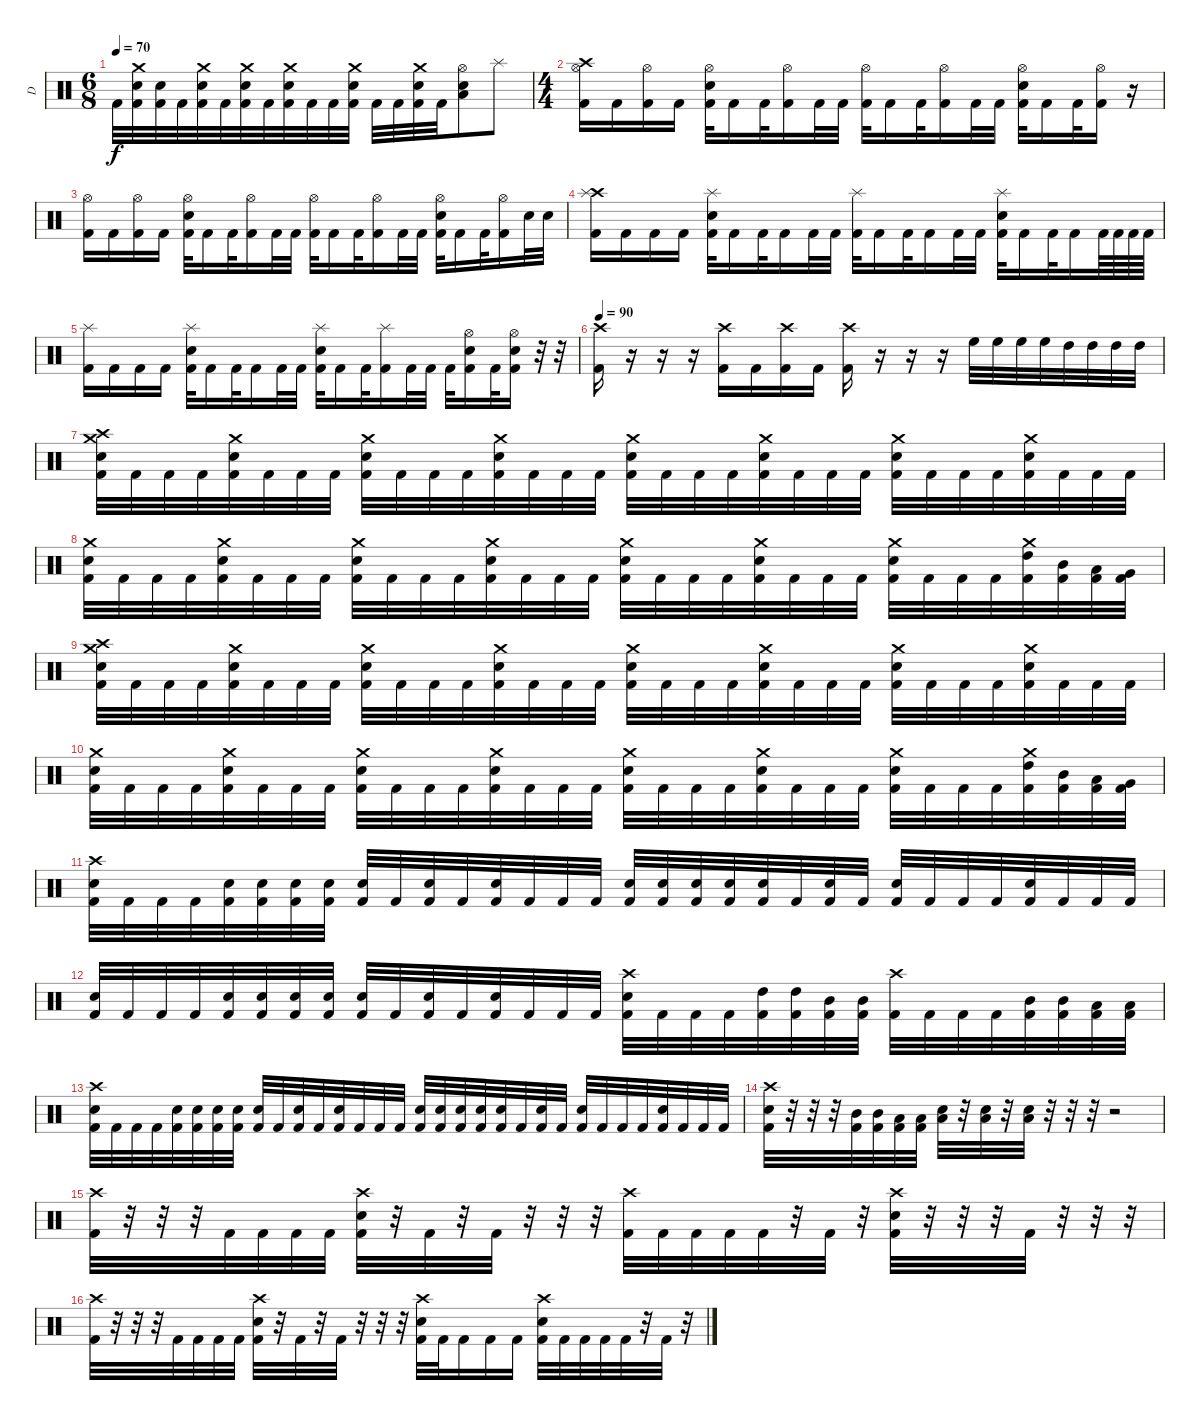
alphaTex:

\track ("D" "D") {instrument percussion}
\staff {score}
\articulation defaults
\ts (6 8)
\tempo 70
\clef neutral
\ks c "Kick (hit) 2".32{dy f}
("Electric Snare (hit)" "Kick (hit) 2" "Crash medium (hit)").32 ("Electric Snare (hit)" "Kick (hit) 2").32 "Kick (hit) 2".32 ("Electric Snare (hit)" "Kick (hit) 2" "Crash medium (hit)").32 "Kick (hit) 2".32 ("Electric Snare (hit)" "Kick (hit) 2" "Crash medium (hit)").32 "Kick (hit) 2".32 ("Electric Snare (hit)" "Kick (hit) 2" "Crash medium (hit)").32 "Kick (hit) 2".32 "Kick (hit) 2".32 ("Electric Snare (hit)" "Kick (hit) 2" "Crash medium (hit)").32 "Kick (hit) 2".32 "Kick (hit) 2".32 ("Electric Snare (hit)" "Kick (hit) 2" "Crash medium (hit)").32 "Kick (hit) 2".32 ("Electric Snare (hit)" "Low Tom (hit)" "Hi-Hat (open)").8 "Splash (hit)".8 |
\ts (4 4)
("Crash high (hit)" "Kick (hit) 2" "Hi-Hat (open)").16 "Kick (hit) 2".16 ("Kick (hit) 2" "Hi-Hat (open)").16 "Kick (hit) 2".16 ("Electric Snare (hit)" "Kick (hit) 2" "Hi-Hat (open)").32 "Kick (hit) 2".16 "Kick (hit) 2".32 ("Kick (hit) 2" "Hi-Hat (open)").16 "Kick (hit) 2".32 "Kick (hit) 2".32 ("Kick (hit) 2" "Hi-Hat (open)").32 "Kick (hit) 2".16 "Kick (hit) 2".32 ("Kick (hit) 2" "Hi-Hat (open)").16 "Kick (hit) 2".32 "Kick (hit) 2".32 ("Electric Snare (hit)" "Kick (hit) 2" "Hi-Hat (open)").32 "Kick (hit) 2".16 "Kick (hit) 2".32 ("Kick (hit) 2" "Hi-Hat (open)").16 r.16 |
("Kick (hit) 2" "Hi-Hat (open)").16 "Kick (hit) 2".16 ("Kick (hit) 2" "Hi-Hat (open)").16 "Kick (hit) 2".16 ("Electric Snare (hit)" "Kick (hit) 2" "Hi-Hat (open)").32 "Kick (hit) 2".16 "Kick (hit) 2".32 ("Kick (hit) 2" "Hi-Hat (open)").16 "Kick (hit) 2".32 "Kick (hit) 2".32 ("Kick (hit) 2" "Hi-Hat (open)").32 "Kick (hit) 2".16 "Kick (hit) 2".32 ("Kick (hit) 2" "Hi-Hat (open)").16 "Kick (hit) 2".32 "Kick (hit) 2".32 ("Electric Snare (hit)" "Kick (hit) 2" "Hi-Hat (open)").32 "Kick (hit) 2".16 "Kick (hit) 2".32 ("Kick (hit) 2" "Hi-Hat (open)").16 "Electric Snare (hit)".32 "Electric Snare (hit)".32 |
("Crash high (hit)" "Kick (hit) 2" "Splash (hit)").16 "Kick (hit) 2".16 "Kick (hit) 2".16 "Kick (hit) 2".16 ("Electric Snare (hit)" "Kick (hit) 2" "Splash (hit)").32 "Kick (hit) 2".16 "Kick (hit) 2".32 "Kick (hit) 2".16 "Kick (hit) 2".32 "Kick (hit) 2".32 ("Kick (hit) 2" "Splash (hit)").32 "Kick (hit) 2".16 "Kick (hit) 2".32 "Kick (hit) 2".16 "Kick (hit) 2".32 "Kick (hit) 2".32 ("Electric Snare (hit)" "Kick (hit) 2" "Splash (hit)").32 "Kick (hit) 2".16 "Kick (hit) 2".32 "Kick (hit) 2".16 "Kick (hit) 2".64 "Kick (hit) 2".64 "Kick (hit) 2".64 "Kick (hit) 2".64 |
("Kick (hit) 2" "Splash (hit)").16 "Kick (hit) 2".16 "Kick (hit) 2".16 "Kick (hit) 2".16 ("Electric Snare (hit)" "Kick (hit) 2" "Splash (hit)").32 "Kick (hit) 2".16 "Kick (hit) 2".32 "Kick (hit) 2".16 "Kick (hit) 2".32 "Kick (hit) 2".32 ("Electric Snare (hit)" "Kick (hit) 2" "Splash (hit)").32 "Kick (hit) 2".16 "Kick (hit) 2".32 ("Kick (hit) 2" "Splash (hit)").16 "Kick (hit) 2".32 "Kick (hit) 2".32 "Kick (hit) 2".32 ("Electric Snare (hit)" "Kick (hit) 2" "Hi-Hat (open)").16 "Kick (hit) 2".32 ("Electric Snare (hit)" "Kick (hit) 2" "Hi-Hat (open)").16 r.32 r.32 |
\tempo 90
("Crash high (hit)" "Kick (hit) 2").16 r.16 r.16 r.16 ("Crash high (hit)" "Kick (hit) 2").16 "Kick (hit) 2".16 ("Crash high (hit)" "Kick (hit) 2").16 "Kick (hit) 2".16 ("Crash high (hit)" "Kick (hit) 2").16 r.16 r.16 r.16 "High Floor Tom (hit)".32 "High Floor Tom (hit)".32 "High Floor Tom (hit)".32 "High Floor Tom (hit)".32 "High Tom (hit)".32 "High Tom (hit)".32 "High Tom (hit)".32 "High Tom (hit)".32 |
("Crash high (hit)" "Electric Snare (hit)" "Kick (hit) 2" "Crash medium (hit)").32 "Kick (hit) 2".32 "Kick (hit) 2".32 "Kick (hit) 2".32 ("Electric Snare (hit)" "Kick (hit) 2" "Crash medium (hit)").32 "Kick (hit) 2".32 "Kick (hit) 2".32 "Kick (hit) 2".32 ("Electric Snare (hit)" "Kick (hit) 2" "Crash medium (hit)").32 "Kick (hit) 2".32 "Kick (hit) 2".32 "Kick (hit) 2".32 ("Electric Snare (hit)" "Kick (hit) 2" "Crash medium (hit)").32 "Kick (hit) 2".32 "Kick (hit) 2".32 "Kick (hit) 2".32 ("Electric Snare (hit)" "Kick (hit) 2" "Crash medium (hit)").32 "Kick (hit) 2".32 "Kick (hit) 2".32 "Kick (hit) 2".32 ("Electric Snare (hit)" "Kick (hit) 2" "Crash medium (hit)").32 "Kick (hit) 2".32 "Kick (hit) 2".32 "Kick (hit) 2".32 ("Electric Snare (hit)" "Kick (hit) 2" "Crash medium (hit)").32 "Kick (hit) 2".32 "Kick (hit) 2".32 "Kick (hit) 2".32 ("Electric Snare (hit)" "Kick (hit) 2" "Crash medium (hit)").32 "Kick (hit) 2".32 "Kick (hit) 2".32 "Kick (hit) 2".32 |
("Electric Snare (hit)" "Kick (hit) 2" "Crash medium (hit)").32 "Kick (hit) 2".32 "Kick (hit) 2".32 "Kick (hit) 2".32 ("Electric Snare (hit)" "Kick (hit) 2" "Crash medium (hit)").32 "Kick (hit) 2".32 "Kick (hit) 2".32 "Kick (hit) 2".32 ("Electric Snare (hit)" "Kick (hit) 2" "Crash medium (hit)").32 "Kick (hit) 2".32 "Kick (hit) 2".32 "Kick (hit) 2".32 ("Electric Snare (hit)" "Kick (hit) 2" "Crash medium (hit)").32 "Kick (hit) 2".32 "Kick (hit) 2".32 "Kick (hit) 2".32 ("Electric Snare (hit)" "Kick (hit) 2" "Crash medium (hit)").32 "Kick (hit) 2".32 "Kick (hit) 2".32 "Kick (hit) 2".32 ("Electric Snare (hit)" "Kick (hit) 2" "Crash medium (hit)").32 "Kick (hit) 2".32 "Kick (hit) 2".32 "Kick (hit) 2".32 ("Electric Snare (hit)" "Kick (hit) 2" "Crash medium (hit)").32 "Kick (hit) 2".32 "Kick (hit) 2".32 "Kick (hit) 2".32 ("High Tom (hit)" "Kick (hit) 2" "Crash medium (hit)").32 ("Mid Tom (hit)" "Kick (hit) 2").32 ("Low Tom (hit)" "Kick (hit) 2").32 ("Very Low Tom (hit)" "Kick (hit) 2").32 |
("Crash high (hit)" "Electric Snare (hit)" "Kick (hit) 2" "Crash medium (hit)").32 "Kick (hit) 2".32 "Kick (hit) 2".32 "Kick (hit) 2".32 ("Electric Snare (hit)" "Kick (hit) 2" "Crash medium (hit)").32 "Kick (hit) 2".32 "Kick (hit) 2".32 "Kick (hit) 2".32 ("Electric Snare (hit)" "Kick (hit) 2" "Crash medium (hit)").32 "Kick (hit) 2".32 "Kick (hit) 2".32 "Kick (hit) 2".32 ("Electric Snare (hit)" "Kick (hit) 2" "Crash medium (hit)").32 "Kick (hit) 2".32 "Kick (hit) 2".32 "Kick (hit) 2".32 ("Electric Snare (hit)" "Kick (hit) 2" "Crash medium (hit)").32 "Kick (hit) 2".32 "Kick (hit) 2".32 "Kick (hit) 2".32 ("Electric Snare (hit)" "Kick (hit) 2" "Crash medium (hit)").32 "Kick (hit) 2".32 "Kick (hit) 2".32 "Kick (hit) 2".32 ("Electric Snare (hit)" "Kick (hit) 2" "Crash medium (hit)").32 "Kick (hit) 2".32 "Kick (hit) 2".32 "Kick (hit) 2".32 ("Electric Snare (hit)" "Kick (hit) 2" "Crash medium (hit)").32 "Kick (hit) 2".32 "Kick (hit) 2".32 "Kick (hit) 2".32 |
("Electric Snare (hit)" "Kick (hit) 2" "Crash medium (hit)").32 "Kick (hit) 2".32 "Kick (hit) 2".32 "Kick (hit) 2".32 ("Electric Snare (hit)" "Kick (hit) 2" "Crash medium (hit)").32 "Kick (hit) 2".32 "Kick (hit) 2".32 "Kick (hit) 2".32 ("Electric Snare (hit)" "Kick (hit) 2" "Crash medium (hit)").32 "Kick (hit) 2".32 "Kick (hit) 2".32 "Kick (hit) 2".32 ("Electric Snare (hit)" "Kick (hit) 2" "Crash medium (hit)").32 "Kick (hit) 2".32 "Kick (hit) 2".32 "Kick (hit) 2".32 ("Electric Snare (hit)" "Kick (hit) 2" "Crash medium (hit)").32 "Kick (hit) 2".32 "Kick (hit) 2".32 "Kick (hit) 2".32 ("Electric Snare (hit)" "Kick (hit) 2" "Crash medium (hit)").32 "Kick (hit) 2".32 "Kick (hit) 2".32 "Kick (hit) 2".32 ("Electric Snare (hit)" "Kick (hit) 2" "Crash medium (hit)").32 "Kick (hit) 2".32 "Kick (hit) 2".32 "Kick (hit) 2".32 ("High Tom (hit)" "Kick (hit) 2" "Crash medium (hit)").32 ("Mid Tom (hit)" "Kick (hit) 2").32 ("Low Tom (hit)" "Kick (hit) 2").32 ("Very Low Tom (hit)" "Kick (hit) 2").32 |
("Crash high (hit)" "Electric Snare (hit)" "Kick (hit) 2").32 "Kick (hit) 2".32 "Kick (hit) 2".32 "Kick (hit) 2".32 ("Electric Snare (hit)" "Kick (hit) 2").32 ("Electric Snare (hit)" "Kick (hit) 2").32 ("Electric Snare (hit)" "Kick (hit) 2").32 ("Electric Snare (hit)" "Kick (hit) 2").32 ("Electric Snare (hit)" "Kick (hit) 2").32 "Kick (hit) 2".32 ("Electric Snare (hit)" "Kick (hit) 2").32 "Kick (hit) 2".32 ("Electric Snare (hit)" "Kick (hit) 2").32 "Kick (hit) 2".32 "Kick (hit) 2".32 "Kick (hit) 2".32 ("Electric Snare (hit)" "Kick (hit) 2").32 ("Electric Snare (hit)" "Kick (hit) 2").32 ("Electric Snare (hit)" "Kick (hit) 2").32 ("Electric Snare (hit)" "Kick (hit) 2").32 ("Electric Snare (hit)" "Kick (hit) 2").32 "Kick (hit) 2".32 ("Electric Snare (hit)" "Kick (hit) 2").32 "Kick (hit) 2".32 ("Electric Snare (hit)" "Kick (hit) 2").32 "Kick (hit) 2".32 "Kick (hit) 2".32 "Kick (hit) 2".32 ("Electric Snare (hit)" "Kick (hit) 2").32 "Kick (hit) 2".32 "Kick (hit) 2".32 "Kick (hit) 2".32 |
("Electric Snare (hit)" "Kick (hit) 2").32 "Kick (hit) 2".32 "Kick (hit) 2".32 "Kick (hit) 2".32 ("Electric Snare (hit)" "Kick (hit) 2").32 ("Electric Snare (hit)" "Kick (hit) 2").32 ("Electric Snare (hit)" "Kick (hit) 2").32 ("Electric Snare (hit)" "Kick (hit) 2").32 ("Electric Snare (hit)" "Kick (hit) 2").32 "Kick (hit) 2".32 ("Electric Snare (hit)" "Kick (hit) 2").32 "Kick (hit) 2".32 ("Electric Snare (hit)" "Kick (hit) 2").32 "Kick (hit) 2".32 "Kick (hit) 2".32 "Kick (hit) 2".32 ("Crash high (hit)" "Electric Snare (hit)" "Kick (hit) 2").32 "Kick (hit) 2".32 "Kick (hit) 2".32 "Kick (hit) 2".32 ("High Tom (hit)" "Kick (hit) 2").32 ("High Tom (hit)" "Kick (hit) 2").32 ("Mid Tom (hit)" "Kick (hit) 2").32 ("Mid Tom (hit)" "Kick (hit) 2").32 ("Crash high (hit)" "Kick (hit) 2").32 "Kick (hit) 2".32 "Kick (hit) 2".32 "Kick (hit) 2".32 ("Mid Tom (hit)" "Kick (hit) 2").32 ("Mid Tom (hit)" "Kick (hit) 2").32 ("Low Tom (hit)" "Kick (hit) 2").32 ("Low Tom (hit)" "Kick (hit) 2").32 |
("Crash high (hit)" "Electric Snare (hit)" "Kick (hit) 2").32 "Kick (hit) 2".32 "Kick (hit) 2".32 "Kick (hit) 2".32 ("Electric Snare (hit)" "Kick (hit) 2").32 ("Electric Snare (hit)" "Kick (hit) 2").32 ("Electric Snare (hit)" "Kick (hit) 2").32 ("Electric Snare (hit)" "Kick (hit) 2").32 ("Electric Snare (hit)" "Kick (hit) 2").32 "Kick (hit) 2".32 ("Electric Snare (hit)" "Kick (hit) 2").32 "Kick (hit) 2".32 ("Electric Snare (hit)" "Kick (hit) 2").32 "Kick (hit) 2".32 "Kick (hit) 2".32 "Kick (hit) 2".32 ("Electric Snare (hit)" "Kick (hit) 2").32 ("Electric Snare (hit)" "Kick (hit) 2").32 ("Electric Snare (hit)" "Kick (hit) 2").32 ("Electric Snare (hit)" "Kick (hit) 2").32 ("Electric Snare (hit)" "Kick (hit) 2").32 "Kick (hit) 2".32 ("Electric Snare (hit)" "Kick (hit) 2").32 "Kick (hit) 2".32 ("Electric Snare (hit)" "Kick (hit) 2").32 "Kick (hit) 2".32 "Kick (hit) 2".32 "Kick (hit) 2".32 ("Electric Snare (hit)" "Kick (hit) 2").32 "Kick (hit) 2".32 "Kick (hit) 2".32 "Kick (hit) 2".32 |
("Crash high (hit)" "Electric Snare (hit)" "Kick (hit) 2").32 r.32 r.32 r.32 ("Mid Tom (hit)" "Kick (hit) 2").32 ("Mid Tom (hit)" "Kick (hit) 2").32 ("Low Tom (hit)" "Kick (hit) 2").32 ("Low Tom (hit)" "Kick (hit) 2").32 ("Electric Snare (hit)" "Low Tom (hit)").32 r.32 ("Electric Snare (hit)" "Low Tom (hit)").32 r.32 ("Electric Snare (hit)" "Low Tom (hit)").32 r.32 r.32 r.32 r.2 |
("Crash high (hit)" "Kick (hit) 2").32 r.32 r.32 r.32 "Kick (hit) 2".32 "Kick (hit) 2".32 "Kick (hit) 2".32 "Kick (hit) 2".32 ("Crash high (hit)" "Electric Snare (hit)" "Kick (hit) 2").32 r.32 "Kick (hit) 2".32 r.32 "Kick (hit) 2".32 r.32 r.32 r.32 ("Crash high (hit)" "Kick (hit) 2").32 "Kick (hit) 2".32 "Kick (hit) 2".32 "Kick (hit) 2".32 "Kick (hit) 2".32 r.32 "Kick (hit) 2".32 r.32 ("Crash high (hit)" "Electric Snare (hit)" "Kick (hit) 2").32 r.32 r.32 r.32 "Kick (hit) 2".32 r.32 r.32 r.32 |
("Crash high (hit)" "Kick (hit) 2").32 r.32 r.32 r.32 "Kick (hit) 2".32 "Kick (hit) 2".32 "Kick (hit) 2".32 "Kick (hit) 2".32 ("Crash high (hit)" "Electric Snare (hit)" "Kick (hit) 2").32 r.32 "Kick (hit) 2".32 r.32 "Kick (hit) 2".32 r.32 r.32 r.32 ("Crash high (hit)" "Electric Snare (hit)" "Kick (hit) 2").32 "Kick (hit) 2".32 "Kick (hit) 2".16 "Kick (hit) 2".16 "Kick (hit) 2".16 ("Crash high (hit)" "Electric Snare (hit)" "Kick (hit) 2").32 "Kick (hit) 2".32 "Kick (hit) 2".32 "Kick (hit) 2".32 "Kick (hit) 2".32 r.32 "Kick (hit) 2".32 r.32
